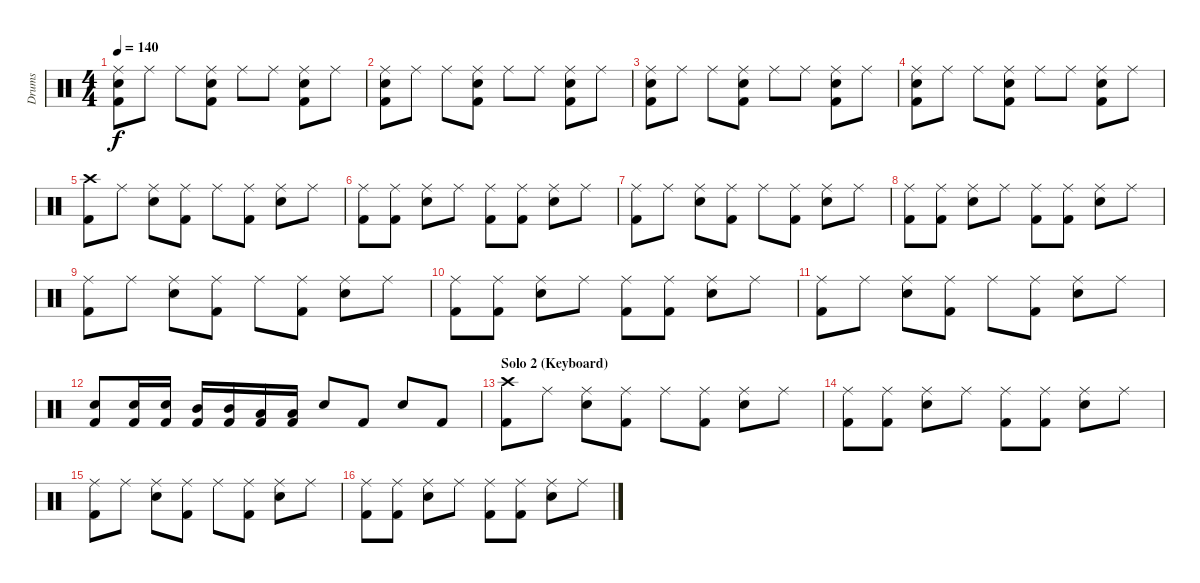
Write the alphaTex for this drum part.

\track ("Drums" "Drums") {instrument percussion}
\staff {score}
\articulation defaults
\ts (4 4)
\tempo 140
\clef neutral
\ks c
("Ride (middle)" "Snare (hit) 2" "Kick (hit) 2").8{dy f} "Ride (middle)".8 "Ride (middle)".8 ("Ride (middle)" "Snare (hit) 2" "Kick (hit) 2").8 "Ride (middle)".8 "Ride (middle)".8 ("Ride (middle)" "Snare (hit) 2" "Kick (hit) 2").8 "Ride (middle)".8 |
("Ride (middle)" "Snare (hit) 2" "Kick (hit) 2").8 "Ride (middle)".8 "Ride (middle)".8 ("Ride (middle)" "Snare (hit) 2" "Kick (hit) 2").8 "Ride (middle)".8 "Ride (middle)".8 ("Ride (middle)" "Snare (hit) 2" "Kick (hit) 2").8 "Ride (middle)".8 |
("Ride (middle)" "Snare (hit) 2" "Kick (hit) 2").8 "Ride (middle)".8 "Ride (middle)".8 ("Ride (middle)" "Snare (hit) 2" "Kick (hit) 2").8 "Ride (middle)".8 "Ride (middle)".8 ("Ride (middle)" "Snare (hit) 2" "Kick (hit) 2").8 "Ride (middle)".8 |
("Ride (middle)" "Snare (hit) 2" "Kick (hit) 2").8 "Ride (middle)".8 "Ride (middle)".8 ("Ride (middle)" "Snare (hit) 2" "Kick (hit) 2").8 "Ride (middle)".8 "Ride (middle)".8 ("Ride (middle)" "Snare (hit) 2" "Kick (hit) 2").8 "Ride (middle)".8 |
("Crash high (hit)" "Kick (hit) 2").8 "Ride (middle)".8 ("Ride (middle)" "Snare (hit) 2").8 ("Ride (middle)" "Kick (hit) 2").8 "Ride (middle)".8 ("Ride (middle)" "Kick (hit) 2").8 ("Ride (middle)" "Snare (hit) 2").8 "Ride (middle)".8 |
("Ride (middle)" "Kick (hit) 2").8 ("Ride (middle)" "Kick (hit) 2").8 ("Ride (middle)" "Snare (hit) 2").8 "Ride (middle)".8 ("Ride (middle)" "Kick (hit) 2").8 ("Ride (middle)" "Kick (hit) 2").8 ("Ride (middle)" "Snare (hit) 2").8 "Ride (middle)".8 |
("Ride (middle)" "Kick (hit) 2").8 "Ride (middle)".8 ("Ride (middle)" "Snare (hit) 2").8 ("Ride (middle)" "Kick (hit) 2").8 "Ride (middle)".8 ("Ride (middle)" "Kick (hit) 2").8 ("Ride (middle)" "Snare (hit) 2").8 "Ride (middle)".8 |
("Ride (middle)" "Kick (hit) 2").8 ("Ride (middle)" "Kick (hit) 2").8 ("Ride (middle)" "Snare (hit) 2").8 "Ride (middle)".8 ("Ride (middle)" "Kick (hit) 2").8 ("Ride (middle)" "Kick (hit) 2").8 ("Ride (middle)" "Snare (hit) 2").8 "Ride (middle)".8 |
("Ride (middle)" "Kick (hit) 2").8 "Ride (middle)".8 ("Ride (middle)" "Snare (hit) 2").8 ("Ride (middle)" "Kick (hit) 2").8 "Ride (middle)".8 ("Ride (middle)" "Kick (hit) 2").8 ("Ride (middle)" "Snare (hit) 2").8 "Ride (middle)".8 |
("Ride (middle)" "Kick (hit) 2").8 ("Ride (middle)" "Kick (hit) 2").8 ("Ride (middle)" "Snare (hit) 2").8 "Ride (middle)".8 ("Ride (middle)" "Kick (hit) 2").8 ("Ride (middle)" "Kick (hit) 2").8 ("Ride (middle)" "Snare (hit) 2").8 "Ride (middle)".8 |
("Ride (middle)" "Kick (hit) 2").8 "Ride (middle)".8 ("Ride (middle)" "Snare (hit) 2").8 ("Ride (middle)" "Kick (hit) 2").8 "Ride (middle)".8 ("Ride (middle)" "Kick (hit) 2").8 ("Ride (middle)" "Snare (hit) 2").8 "Ride (middle)".8 |
("Snare (hit) 2" "Kick (hit) 2").8 ("Snare (hit) 2" "Kick (hit) 2").16 ("Snare (hit) 2" "Kick (hit) 2").16 ("Mid Tom (hit)" "Kick (hit) 2").16 ("Mid Tom (hit)" "Kick (hit) 2").16 ("Low Tom (hit)" "Kick (hit) 2").16 ("Low Tom (hit)" "Kick (hit) 2").16 "Snare (hit) 2".8 "Kick (hit) 2".8 "Snare (hit) 2".8 "Kick (hit) 2".8 |
\section ("" "Solo 2 (Keyboard)")
("Crash high (hit)" "Kick (hit) 2").8 "Ride (middle)".8 ("Ride (middle)" "Snare (hit) 2").8 ("Ride (middle)" "Kick (hit) 2").8 "Ride (middle)".8 ("Ride (middle)" "Kick (hit) 2").8 ("Ride (middle)" "Snare (hit) 2").8 "Ride (middle)".8 |
("Ride (middle)" "Kick (hit) 2").8 ("Ride (middle)" "Kick (hit) 2").8 ("Ride (middle)" "Snare (hit) 2").8 "Ride (middle)".8 ("Ride (middle)" "Kick (hit) 2").8 ("Ride (middle)" "Kick (hit) 2").8 ("Ride (middle)" "Snare (hit) 2").8 "Ride (middle)".8 |
("Ride (middle)" "Kick (hit) 2").8 "Ride (middle)".8 ("Ride (middle)" "Snare (hit) 2").8 ("Ride (middle)" "Kick (hit) 2").8 "Ride (middle)".8 ("Ride (middle)" "Kick (hit) 2").8 ("Ride (middle)" "Snare (hit) 2").8 "Ride (middle)".8 |
("Ride (middle)" "Kick (hit) 2").8 ("Ride (middle)" "Kick (hit) 2").8 ("Ride (middle)" "Snare (hit) 2").8 "Ride (middle)".8 ("Ride (middle)" "Kick (hit) 2").8 ("Ride (middle)" "Kick (hit) 2").8 ("Ride (middle)" "Snare (hit) 2").8 "Ride (middle)".8
